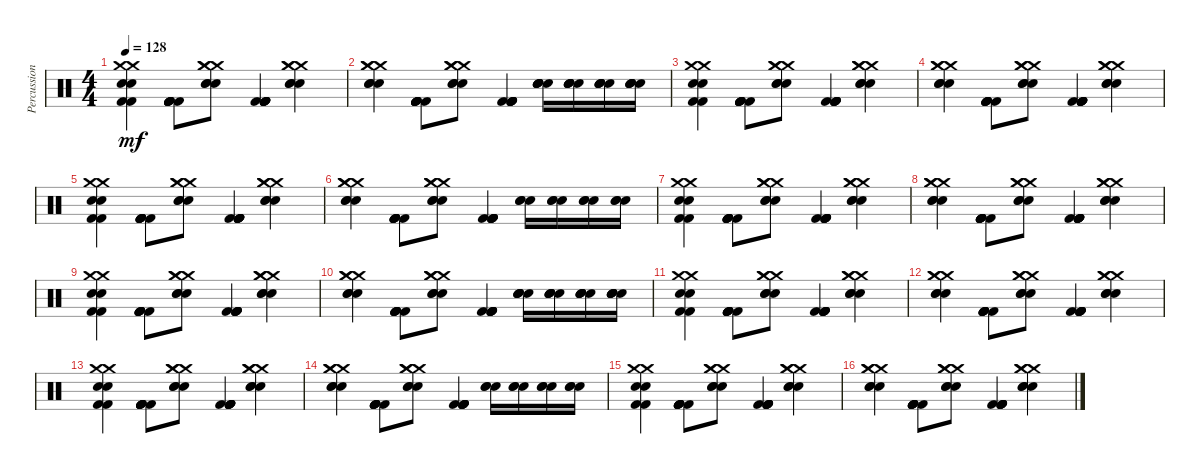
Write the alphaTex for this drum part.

\track ("Percussion" "Percussion") {instrument percussion}
\staff {score}
\articulation defaults
\ts (4 4)
\tempo 128
\clef neutral
\ks c
("Snare (hit) 2" "Snare (hit) 2" "Kick (hit) 2" "Kick (hit) 2" "Crash medium (hit)" "Crash medium (hit)").4{dy mf} ("Kick (hit) 2" "Kick (hit) 2" "Kick (hit) 2" "Kick (hit) 2" "Kick (hit) 2" "Kick (hit) 2").8 ("Snare (hit) 2" "Crash medium (hit)" "Snare (hit) 2" "Crash medium (hit)" "Snare (hit) 2" "Crash medium (hit)").8 ("Kick (hit) 2" "Kick (hit) 2" "Kick (hit) 2" "Kick (hit) 2" "Kick (hit) 2" "Kick (hit) 2").4 ("Snare (hit) 2" "Crash medium (hit)" "Snare (hit) 2" "Crash medium (hit)" "Snare (hit) 2" "Crash medium (hit)").4 |
("Snare (hit) 2" "Crash medium (hit)" "Snare (hit) 2" "Crash medium (hit)" "Snare (hit) 2" "Crash medium (hit)").4 ("Kick (hit) 2" "Kick (hit) 2" "Kick (hit) 2" "Kick (hit) 2" "Kick (hit) 2" "Kick (hit) 2").8 ("Snare (hit) 2" "Crash medium (hit)" "Snare (hit) 2" "Crash medium (hit)" "Snare (hit) 2" "Crash medium (hit)").8 ("Kick (hit) 2" "Kick (hit) 2" "Kick (hit) 2" "Kick (hit) 2" "Kick (hit) 2" "Kick (hit) 2").4 ("Snare (hit) 2" "Snare (hit) 2" "Snare (hit) 2" "Snare (hit) 2" "Snare (hit) 2").16 ("Snare (hit) 2" "Snare (hit) 2" "Snare (hit) 2" "Snare (hit) 2" "Snare (hit) 2").16 ("Snare (hit) 2" "Snare (hit) 2" "Snare (hit) 2" "Snare (hit) 2" "Snare (hit) 2").16 ("Snare (hit) 2" "Snare (hit) 2" "Snare (hit) 2" "Snare (hit) 2" "Snare (hit) 2").16 |
("Snare (hit) 2" "Snare (hit) 2" "Kick (hit) 2" "Kick (hit) 2" "Crash medium (hit)" "Crash medium (hit)").4 ("Kick (hit) 2" "Kick (hit) 2" "Kick (hit) 2" "Kick (hit) 2" "Kick (hit) 2" "Kick (hit) 2").8 ("Snare (hit) 2" "Crash medium (hit)" "Snare (hit) 2" "Crash medium (hit)" "Snare (hit) 2" "Crash medium (hit)").8 ("Kick (hit) 2" "Kick (hit) 2" "Kick (hit) 2" "Kick (hit) 2" "Kick (hit) 2" "Kick (hit) 2").4 ("Snare (hit) 2" "Crash medium (hit)" "Snare (hit) 2" "Crash medium (hit)" "Snare (hit) 2" "Crash medium (hit)").4 |
("Snare (hit) 2" "Crash medium (hit)" "Snare (hit) 2" "Crash medium (hit)" "Snare (hit) 2" "Crash medium (hit)").4 ("Kick (hit) 2" "Kick (hit) 2" "Kick (hit) 2" "Kick (hit) 2" "Kick (hit) 2" "Kick (hit) 2").8 ("Snare (hit) 2" "Crash medium (hit)" "Snare (hit) 2" "Crash medium (hit)" "Snare (hit) 2" "Crash medium (hit)").8 ("Kick (hit) 2" "Kick (hit) 2" "Kick (hit) 2" "Kick (hit) 2" "Kick (hit) 2" "Kick (hit) 2").4 ("Snare (hit) 2" "Crash medium (hit)" "Snare (hit) 2" "Crash medium (hit)" "Snare (hit) 2" "Crash medium (hit)").4 |
("Snare (hit) 2" "Snare (hit) 2" "Kick (hit) 2" "Kick (hit) 2" "Crash medium (hit)" "Crash medium (hit)").4 ("Kick (hit) 2" "Kick (hit) 2" "Kick (hit) 2" "Kick (hit) 2" "Kick (hit) 2" "Kick (hit) 2").8 ("Snare (hit) 2" "Crash medium (hit)" "Snare (hit) 2" "Crash medium (hit)" "Snare (hit) 2" "Crash medium (hit)").8 ("Kick (hit) 2" "Kick (hit) 2" "Kick (hit) 2" "Kick (hit) 2" "Kick (hit) 2" "Kick (hit) 2").4 ("Snare (hit) 2" "Crash medium (hit)" "Snare (hit) 2" "Crash medium (hit)" "Snare (hit) 2" "Crash medium (hit)").4 |
("Snare (hit) 2" "Crash medium (hit)" "Snare (hit) 2" "Crash medium (hit)" "Snare (hit) 2" "Crash medium (hit)").4 ("Kick (hit) 2" "Kick (hit) 2" "Kick (hit) 2" "Kick (hit) 2" "Kick (hit) 2" "Kick (hit) 2").8 ("Snare (hit) 2" "Crash medium (hit)" "Snare (hit) 2" "Crash medium (hit)" "Snare (hit) 2" "Crash medium (hit)").8 ("Kick (hit) 2" "Kick (hit) 2" "Kick (hit) 2" "Kick (hit) 2" "Kick (hit) 2" "Kick (hit) 2").4 ("Snare (hit) 2" "Snare (hit) 2" "Snare (hit) 2").16 ("Snare (hit) 2" "Snare (hit) 2" "Snare (hit) 2").16 ("Snare (hit) 2" "Snare (hit) 2" "Snare (hit) 2").16 ("Snare (hit) 2" "Snare (hit) 2" "Snare (hit) 2").16 |
("Snare (hit) 2" "Snare (hit) 2" "Kick (hit) 2" "Kick (hit) 2" "Crash medium (hit)" "Crash medium (hit)").4 ("Kick (hit) 2" "Kick (hit) 2" "Kick (hit) 2" "Kick (hit) 2" "Kick (hit) 2" "Kick (hit) 2").8 ("Snare (hit) 2" "Crash medium (hit)" "Snare (hit) 2" "Crash medium (hit)" "Snare (hit) 2" "Crash medium (hit)").8 ("Kick (hit) 2" "Kick (hit) 2" "Kick (hit) 2" "Kick (hit) 2" "Kick (hit) 2" "Kick (hit) 2").4 ("Snare (hit) 2" "Crash medium (hit)" "Snare (hit) 2" "Crash medium (hit)" "Snare (hit) 2" "Crash medium (hit)").4 |
("Snare (hit) 2" "Crash medium (hit)" "Snare (hit) 2" "Crash medium (hit)" "Snare (hit) 2" "Crash medium (hit)").4 ("Kick (hit) 2" "Kick (hit) 2" "Kick (hit) 2" "Kick (hit) 2" "Kick (hit) 2" "Kick (hit) 2").8 ("Snare (hit) 2" "Crash medium (hit)" "Snare (hit) 2" "Crash medium (hit)" "Snare (hit) 2" "Crash medium (hit)").8 ("Kick (hit) 2" "Kick (hit) 2" "Kick (hit) 2" "Kick (hit) 2" "Kick (hit) 2" "Kick (hit) 2").4 ("Snare (hit) 2" "Crash medium (hit)" "Snare (hit) 2" "Crash medium (hit)" "Snare (hit) 2" "Crash medium (hit)").4 |
("Snare (hit) 2" "Snare (hit) 2" "Kick (hit) 2" "Kick (hit) 2" "Crash medium (hit)" "Crash medium (hit)").4 ("Kick (hit) 2" "Kick (hit) 2" "Kick (hit) 2" "Kick (hit) 2" "Kick (hit) 2" "Kick (hit) 2").8 ("Snare (hit) 2" "Crash medium (hit)" "Snare (hit) 2" "Crash medium (hit)" "Snare (hit) 2" "Crash medium (hit)").8 ("Kick (hit) 2" "Kick (hit) 2" "Kick (hit) 2" "Kick (hit) 2" "Kick (hit) 2" "Kick (hit) 2").4 ("Snare (hit) 2" "Crash medium (hit)" "Snare (hit) 2" "Crash medium (hit)" "Snare (hit) 2" "Crash medium (hit)").4 |
("Snare (hit) 2" "Crash medium (hit)" "Snare (hit) 2" "Crash medium (hit)" "Snare (hit) 2" "Crash medium (hit)").4 ("Kick (hit) 2" "Kick (hit) 2" "Kick (hit) 2" "Kick (hit) 2" "Kick (hit) 2" "Kick (hit) 2").8 ("Snare (hit) 2" "Crash medium (hit)" "Snare (hit) 2" "Crash medium (hit)" "Snare (hit) 2" "Crash medium (hit)").8 ("Kick (hit) 2" "Kick (hit) 2" "Kick (hit) 2" "Kick (hit) 2" "Kick (hit) 2" "Kick (hit) 2").4 ("Snare (hit) 2" "Snare (hit) 2" "Snare (hit) 2" "Snare (hit) 2" "Snare (hit) 2").16 ("Snare (hit) 2" "Snare (hit) 2" "Snare (hit) 2" "Snare (hit) 2" "Snare (hit) 2").16 ("Snare (hit) 2" "Snare (hit) 2" "Snare (hit) 2" "Snare (hit) 2" "Snare (hit) 2").16 ("Snare (hit) 2" "Snare (hit) 2" "Snare (hit) 2" "Snare (hit) 2" "Snare (hit) 2").16 |
("Snare (hit) 2" "Snare (hit) 2" "Kick (hit) 2" "Kick (hit) 2" "Crash medium (hit)" "Crash medium (hit)").4 ("Kick (hit) 2" "Kick (hit) 2" "Kick (hit) 2" "Kick (hit) 2" "Kick (hit) 2" "Kick (hit) 2").8 ("Snare (hit) 2" "Crash medium (hit)" "Snare (hit) 2" "Crash medium (hit)" "Snare (hit) 2" "Crash medium (hit)").8 ("Kick (hit) 2" "Kick (hit) 2" "Kick (hit) 2" "Kick (hit) 2" "Kick (hit) 2" "Kick (hit) 2").4 ("Snare (hit) 2" "Crash medium (hit)" "Snare (hit) 2" "Crash medium (hit)" "Snare (hit) 2" "Crash medium (hit)").4 |
("Snare (hit) 2" "Crash medium (hit)" "Snare (hit) 2" "Crash medium (hit)" "Snare (hit) 2" "Crash medium (hit)").4 ("Kick (hit) 2" "Kick (hit) 2" "Kick (hit) 2" "Kick (hit) 2" "Kick (hit) 2" "Kick (hit) 2").8 ("Snare (hit) 2" "Crash medium (hit)" "Snare (hit) 2" "Crash medium (hit)" "Snare (hit) 2" "Crash medium (hit)").8 ("Kick (hit) 2" "Kick (hit) 2" "Kick (hit) 2" "Kick (hit) 2" "Kick (hit) 2" "Kick (hit) 2").4 ("Snare (hit) 2" "Crash medium (hit)" "Snare (hit) 2" "Crash medium (hit)" "Snare (hit) 2" "Crash medium (hit)").4 |
("Snare (hit) 2" "Snare (hit) 2" "Kick (hit) 2" "Kick (hit) 2" "Crash medium (hit)" "Crash medium (hit)").4 ("Kick (hit) 2" "Kick (hit) 2" "Kick (hit) 2" "Kick (hit) 2" "Kick (hit) 2" "Kick (hit) 2").8 ("Snare (hit) 2" "Crash medium (hit)" "Snare (hit) 2" "Crash medium (hit)" "Snare (hit) 2" "Crash medium (hit)").8 ("Kick (hit) 2" "Kick (hit) 2" "Kick (hit) 2" "Kick (hit) 2" "Kick (hit) 2" "Kick (hit) 2").4 ("Snare (hit) 2" "Crash medium (hit)" "Snare (hit) 2" "Crash medium (hit)" "Snare (hit) 2" "Crash medium (hit)").4 |
("Snare (hit) 2" "Crash medium (hit)" "Snare (hit) 2" "Crash medium (hit)" "Snare (hit) 2" "Crash medium (hit)").4 ("Kick (hit) 2" "Kick (hit) 2" "Kick (hit) 2" "Kick (hit) 2" "Kick (hit) 2" "Kick (hit) 2").8 ("Snare (hit) 2" "Crash medium (hit)" "Snare (hit) 2" "Crash medium (hit)" "Snare (hit) 2" "Crash medium (hit)").8 ("Kick (hit) 2" "Kick (hit) 2" "Kick (hit) 2" "Kick (hit) 2" "Kick (hit) 2" "Kick (hit) 2").4 ("Snare (hit) 2" "Snare (hit) 2" "Snare (hit) 2").16 ("Snare (hit) 2" "Snare (hit) 2" "Snare (hit) 2").16 ("Snare (hit) 2" "Snare (hit) 2" "Snare (hit) 2").16 ("Snare (hit) 2" "Snare (hit) 2" "Snare (hit) 2").16 |
("Snare (hit) 2" "Snare (hit) 2" "Kick (hit) 2" "Kick (hit) 2" "Crash medium (hit)" "Crash medium (hit)").4 ("Kick (hit) 2" "Kick (hit) 2" "Kick (hit) 2" "Kick (hit) 2" "Kick (hit) 2" "Kick (hit) 2").8 ("Snare (hit) 2" "Crash medium (hit)" "Snare (hit) 2" "Crash medium (hit)" "Snare (hit) 2" "Crash medium (hit)").8 ("Kick (hit) 2" "Kick (hit) 2" "Kick (hit) 2" "Kick (hit) 2" "Kick (hit) 2" "Kick (hit) 2").4 ("Snare (hit) 2" "Crash medium (hit)" "Snare (hit) 2" "Crash medium (hit)" "Snare (hit) 2" "Crash medium (hit)").4 |
("Snare (hit) 2" "Crash medium (hit)" "Snare (hit) 2" "Crash medium (hit)" "Snare (hit) 2" "Crash medium (hit)").4 ("Kick (hit) 2" "Kick (hit) 2" "Kick (hit) 2" "Kick (hit) 2" "Kick (hit) 2" "Kick (hit) 2").8 ("Snare (hit) 2" "Crash medium (hit)" "Snare (hit) 2" "Crash medium (hit)" "Snare (hit) 2" "Crash medium (hit)").8 ("Kick (hit) 2" "Kick (hit) 2" "Kick (hit) 2" "Kick (hit) 2" "Kick (hit) 2" "Kick (hit) 2").4 ("Snare (hit) 2" "Crash medium (hit)" "Snare (hit) 2" "Crash medium (hit)" "Snare (hit) 2" "Crash medium (hit)").4
